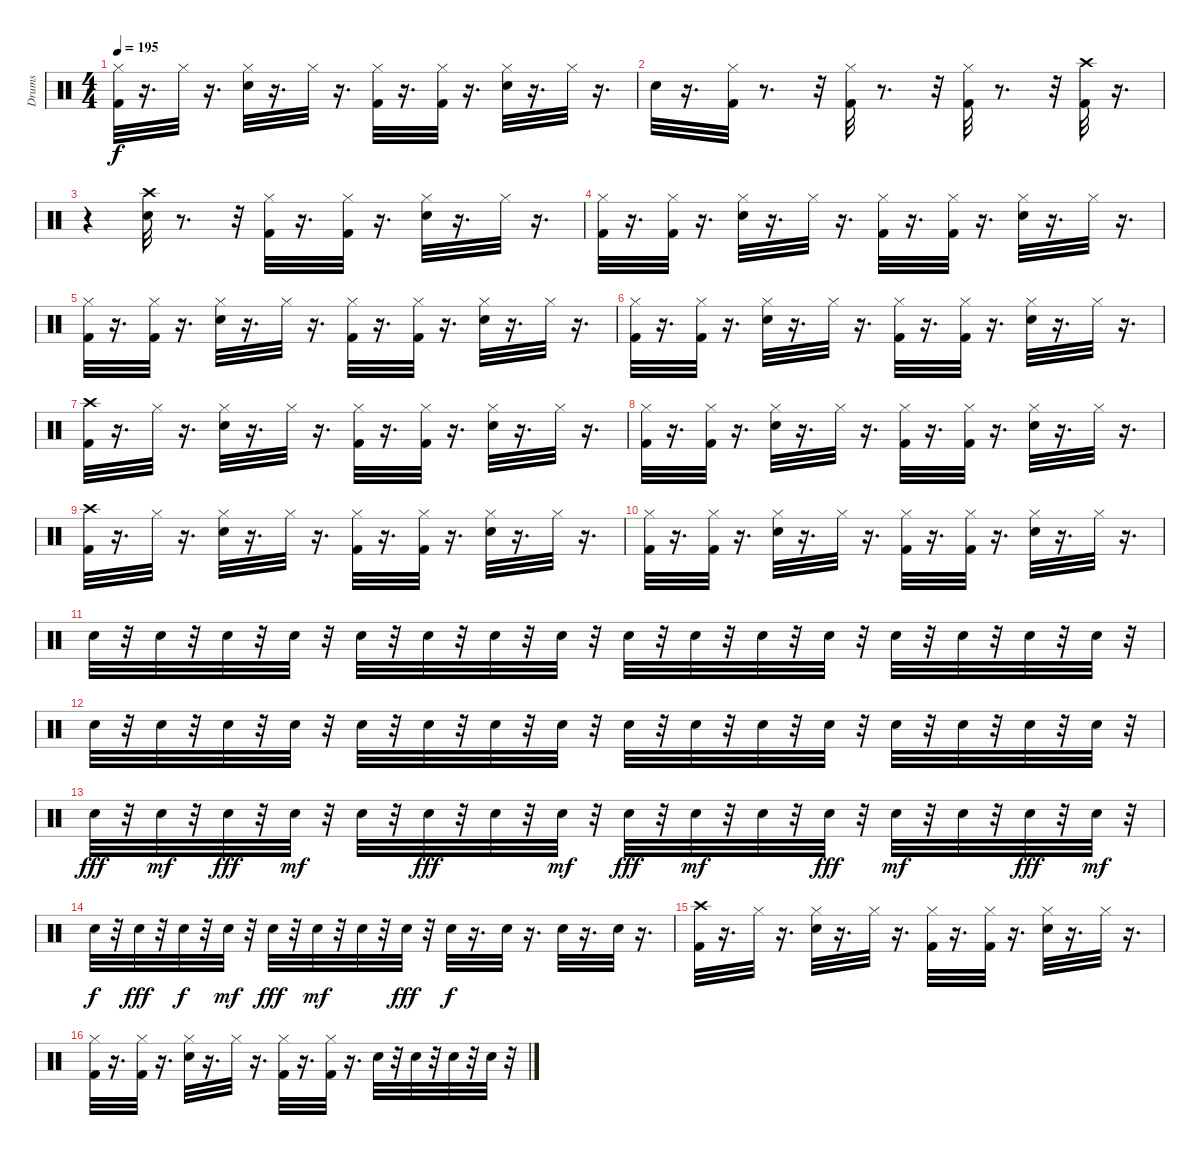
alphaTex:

\track ("Drums" "Drums") {instrument percussion}
\staff {score}
\articulation defaults
\ts (4 4)
\tempo 195
\clef neutral
\ks c
("Hi-Hat (closed)" "Kick (hit) 2").32{dy f} r.16{d} "Hi-Hat (closed)".32 r.16{d} ("Hi-Hat (closed)" "Snare (hit) 2").32 r.16{d} "Hi-Hat (closed)".32 r.16{d} ("Hi-Hat (closed)" "Kick (hit) 2").32 r.16{d} ("Hi-Hat (closed)" "Kick (hit) 2").32 r.16{d} ("Hi-Hat (closed)" "Snare (hit) 2").32 r.16{d} "Hi-Hat (closed)".32 r.16{d} |
"Snare (hit) 2".32 r.16{d} ("Hi-Hat (closed)" "Kick (hit) 2").32 r.8{d} r.32 ("Hi-Hat (closed)" "Kick (hit) 2").32 r.8{d} r.32 ("Hi-Hat (closed)" "Kick (hit) 2").32 r.8{d} r.32 ("Crash high (hit)" "Kick (hit) 2").32 r.16{d} |
r.4 ("Crash high (hit)" "Snare (hit) 2").32 r.8{d} r.32 ("Hi-Hat (closed)" "Kick (hit) 2").32 r.16{d} ("Hi-Hat (closed)" "Kick (hit) 2").32 r.16{d} ("Hi-Hat (closed)" "Snare (hit) 2").32 r.16{d} "Hi-Hat (closed)".32 r.16{d} |
("Hi-Hat (closed)" "Kick (hit) 2").32 r.16{d} ("Hi-Hat (closed)" "Kick (hit) 2").32 r.16{d} ("Hi-Hat (closed)" "Snare (hit) 2").32 r.16{d} "Hi-Hat (closed)".32 r.16{d} ("Hi-Hat (closed)" "Kick (hit) 2").32 r.16{d} ("Hi-Hat (closed)" "Kick (hit) 2").32 r.16{d} ("Hi-Hat (closed)" "Snare (hit) 2").32 r.16{d} "Hi-Hat (closed)".32 r.16{d} |
("Hi-Hat (closed)" "Kick (hit) 2").32 r.16{d} ("Hi-Hat (closed)" "Kick (hit) 2").32 r.16{d} ("Hi-Hat (closed)" "Snare (hit) 2").32 r.16{d} "Hi-Hat (closed)".32 r.16{d} ("Hi-Hat (closed)" "Kick (hit) 2").32 r.16{d} ("Hi-Hat (closed)" "Kick (hit) 2").32 r.16{d} ("Hi-Hat (closed)" "Snare (hit) 2").32 r.16{d} "Hi-Hat (closed)".32 r.16{d} |
("Hi-Hat (closed)" "Kick (hit) 2").32 r.16{d} ("Hi-Hat (closed)" "Kick (hit) 2").32 r.16{d} ("Hi-Hat (closed)" "Snare (hit) 2").32 r.16{d} "Hi-Hat (closed)".32 r.16{d} ("Hi-Hat (closed)" "Kick (hit) 2").32 r.16{d} ("Hi-Hat (closed)" "Kick (hit) 2").32 r.16{d} ("Hi-Hat (closed)" "Snare (hit) 2").32 r.16{d} "Hi-Hat (closed)".32 r.16{d} |
("Crash high (hit)" "Kick (hit) 2").32 r.16{d} "Hi-Hat (closed)".32 r.16{d} ("Hi-Hat (closed)" "Snare (hit) 2").32 r.16{d} "Hi-Hat (closed)".32 r.16{d} ("Hi-Hat (closed)" "Kick (hit) 2").32 r.16{d} ("Hi-Hat (closed)" "Kick (hit) 2").32 r.16{d} ("Hi-Hat (closed)" "Snare (hit) 2").32 r.16{d} "Hi-Hat (closed)".32 r.16{d} |
("Kick (hit) 2" "Hi-Hat (closed)").32 r.16{d} ("Kick (hit) 2" "Hi-Hat (closed)").32 r.16{d} ("Snare (hit) 2" "Hi-Hat (closed)").32 r.16{d} "Hi-Hat (closed)".32 r.16{d} ("Kick (hit) 2" "Hi-Hat (closed)").32 r.16{d} ("Kick (hit) 2" "Hi-Hat (closed)").32 r.16{d} ("Snare (hit) 2" "Hi-Hat (closed)").32 r.16{d} "Hi-Hat (closed)".32 r.16{d} |
("Crash high (hit)" "Kick (hit) 2").32 r.16{d} "Hi-Hat (closed)".32 r.16{d} ("Hi-Hat (closed)" "Snare (hit) 2").32 r.16{d} "Hi-Hat (closed)".32 r.16{d} ("Hi-Hat (closed)" "Kick (hit) 2").32 r.16{d} ("Hi-Hat (closed)" "Kick (hit) 2").32 r.16{d} ("Hi-Hat (closed)" "Snare (hit) 2").32 r.16{d} "Hi-Hat (closed)".32 r.16{d} |
("Kick (hit) 2" "Hi-Hat (closed)").32 r.16{d} ("Kick (hit) 2" "Hi-Hat (closed)").32 r.16{d} ("Snare (hit) 2" "Hi-Hat (closed)").32 r.16{d} "Hi-Hat (closed)".32 r.16{d} ("Kick (hit) 2" "Hi-Hat (closed)").32 r.16{d} ("Kick (hit) 2" "Hi-Hat (closed)").32 r.16{d} ("Snare (hit) 2" "Hi-Hat (closed)").32 r.16{d} "Hi-Hat (closed)".32 r.16{d} |
"Snare (hit) 2".32 r.32 "Snare (hit) 2".32 r.32 "Snare (hit) 2".32 r.32 "Snare (hit) 2".32 r.32 "Snare (hit) 2".32 r.32 "Snare (hit) 2".32 r.32 "Snare (hit) 2".32 r.32 "Snare (hit) 2".32 r.32 "Snare (hit) 2".32 r.32 "Snare (hit) 2".32 r.32 "Snare (hit) 2".32 r.32 "Snare (hit) 2".32 r.32 "Snare (hit) 2".32 r.32 "Snare (hit) 2".32 r.32 "Snare (hit) 2".32 r.32 "Snare (hit) 2".32 r.32 |
"Snare (hit) 2".32 r.32 "Snare (hit) 2".32 r.32 "Snare (hit) 2".32 r.32 "Snare (hit) 2".32 r.32 "Snare (hit) 2".32 r.32 "Snare (hit) 2".32 r.32 "Snare (hit) 2".32 r.32 "Snare (hit) 2".32 r.32 "Snare (hit) 2".32 r.32 "Snare (hit) 2".32 r.32 "Snare (hit) 2".32 r.32 "Snare (hit) 2".32 r.32 "Snare (hit) 2".32 r.32 "Snare (hit) 2".32 r.32 "Snare (hit) 2".32 r.32 "Snare (hit) 2".32 r.32 |
"Snare (hit) 2".32{dy fff} r.32 "Snare (hit) 2".32{dy mf} r.32 "Snare (hit) 2".32{dy fff} r.32 "Snare (hit) 2".32{dy mf} r.32 "Snare (hit) 2".32 r.32 "Snare (hit) 2".32{dy fff} r.32 "Snare (hit) 2".32 r.32 "Snare (hit) 2".32{dy mf} r.32 "Snare (hit) 2".32{dy fff} r.32 "Snare (hit) 2".32{dy mf} r.32 "Snare (hit) 2".32 r.32 "Snare (hit) 2".32{dy fff} r.32 "Snare (hit) 2".32{dy mf} r.32 "Snare (hit) 2".32 r.32 "Snare (hit) 2".32{dy fff} r.32 "Snare (hit) 2".32{dy mf} r.32 |
"Snare (hit) 2".32{dy f} r.32 "Snare (hit) 2".32{dy fff} r.32 "Snare (hit) 2".32{dy f} r.32 "Snare (hit) 2".32{dy mf} r.32 "Snare (hit) 2".32{dy fff} r.32 "Snare (hit) 2".32{dy mf} r.32 "Snare (hit) 2".32 r.32 "Snare (hit) 2".32{dy fff} r.32 "Snare (hit) 2".32{dy f} r.16{d} "Snare (hit) 2".32 r.16{d} "Snare (hit) 2".32 r.16{d} "Snare (hit) 2".32 r.16{d} |
("Crash high (hit)" "Kick (hit) 2").32 r.16{d} "Hi-Hat (closed)".32 r.16{d} ("Hi-Hat (closed)" "Snare (hit) 2").32 r.16{d} "Hi-Hat (closed)".32 r.16{d} ("Hi-Hat (closed)" "Kick (hit) 2").32 r.16{d} ("Hi-Hat (closed)" "Kick (hit) 2").32 r.16{d} ("Hi-Hat (closed)" "Snare (hit) 2").32 r.16{d} "Hi-Hat (closed)".32 r.16{d} |
("Kick (hit) 2" "Hi-Hat (closed)").32 r.16{d} ("Kick (hit) 2" "Hi-Hat (closed)").32 r.16{d} ("Snare (hit) 2" "Hi-Hat (closed)").32 r.16{d} "Hi-Hat (closed)".32 r.16{d} ("Kick (hit) 2" "Hi-Hat (closed)").32 r.16{d} ("Kick (hit) 2" "Hi-Hat (closed)").32 r.16{d} "Snare (hit) 2".32 r.32 "Snare (hit) 2".32 r.32 "Snare (hit) 2".32 r.32 "Snare (hit) 2".32 r.32
